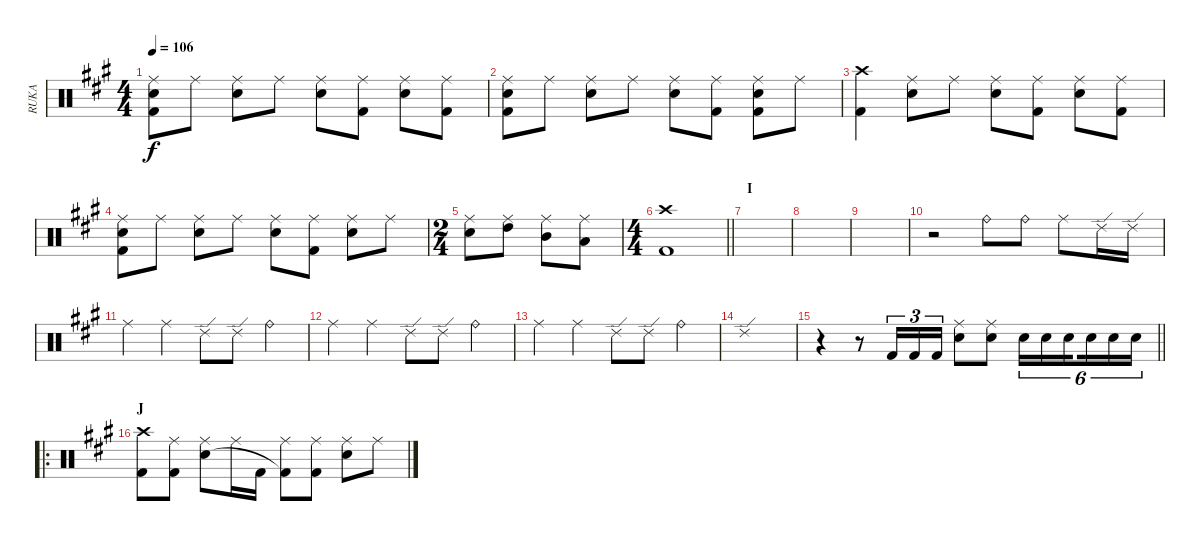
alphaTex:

\track ("RUKA" "RUKA") {instrument percussion}
\staff {score}
\articulation defaults
\ts (4 4)
\tempo 106
\clef neutral
\ks a
("Ride (middle)" "Snare (hit) 2" "Kick (hit) 2").8{dy f} "Ride (middle)".8 ("Ride (middle)" "Snare (hit) 2").8 "Ride (middle)".8 ("Ride (middle)" "Snare (hit) 2").8 ("Ride (middle)" "Kick (hit) 2").8 ("Ride (middle)" "Snare (hit) 2").8 ("Ride (middle)" "Kick (hit) 2").8 |
("Ride (middle)" "Snare (hit) 2" "Kick (hit) 2").8 "Ride (middle)".8 ("Ride (middle)" "Snare (hit) 2").8 "Ride (middle)".8 ("Ride (middle)" "Snare (hit) 2").8 ("Ride (middle)" "Kick (hit) 2").8 ("Ride (middle)" "Snare (hit) 2" "Kick (hit) 2").8 "Ride (middle)".8 |
("Crash high (hit)" "Kick (hit) 2").4 ("Ride (middle)" "Snare (hit) 2").8 "Ride (middle)".8 ("Ride (middle)" "Snare (hit) 2").8 ("Ride (middle)" "Kick (hit) 2").8 ("Ride (middle)" "Snare (hit) 2").8 ("Ride (middle)" "Kick (hit) 2").8 |
("Ride (middle)" "Snare (hit) 2" "Kick (hit) 2").8 "Ride (middle)".8 ("Ride (middle)" "Snare (hit) 2").8 "Ride (middle)".8 ("Ride (middle)" "Snare (hit) 2").8 ("Ride (middle)" "Kick (hit) 2").8 ("Ride (middle)" "Snare (hit) 2").8 "Ride (middle)".8 |
\ts (2 4)
("Ride (middle)" "Snare (hit) 2").8 ("Ride (middle)" "High Tom (hit)").8 ("Ride (middle)" "Mid Tom (hit)").8 ("Ride (middle)" "Low Tom (hit)").8 |
\ts (4 4)
\barLineRight lightlight
("Crash high (hit)" "Kick (hit) 2").1 |
\section ("" "I")
|
|
|
r.2 "Ride (bell)".8 "Ride (bell)".8 "Ride (middle)".8 "Ride (edge) 2".16 "Ride (edge) 2".16 |
"Ride (middle)".4 "Ride (middle)".4 "Ride (edge) 2".8 "Ride (edge) 2".8 "Ride (bell)".4 |
"Ride (middle)".4 "Ride (middle)".4 "Ride (edge) 2".8 "Ride (edge) 2".8 "Ride (bell)".4 |
"Ride (middle)".4 "Ride (middle)".4 "Ride (edge) 2".8 "Ride (edge) 2".8 "Ride (bell)".4 |
"Ride (edge) 2".1 |
\barLineRight lightlight
r.4 r.8 "Kick (hit) 2".16{tu (3 2)} "Kick (hit) 2".16{tu (3 2)} "Kick (hit) 2".16{tu (3 2)} ("Ride (middle)" "Snare (hit) 2").8 ("Ride (middle)" "Snare (hit) 2").8 "Snare (hit) 2".16{tu (6 4)} "Snare (hit) 2".16{tu (6 4)} "Snare (hit) 2".16{tu (6 4) beam splitsecondary} "Snare (hit) 2".16{tu (6 4)} "Snare (hit) 2".16{tu (6 4)} "Snare (hit) 2".16{tu (6 4)} |
\ro
\section ("" "J")
("Crash high (hit)" "Kick (hit) 2").8 ("Ride (middle)" "Kick (hit) 2").8 ("Ride (middle)" "Snare (hit) 2").8 "Ride (middle)".16 "Kick (hit) 2".16 ("Ride (middle)" "Kick (hit) 2"{t}).8 ("Ride (middle)" "Kick (hit) 2").8 ("Ride (middle)" "Snare (hit) 2").8 "Ride (middle)".8
